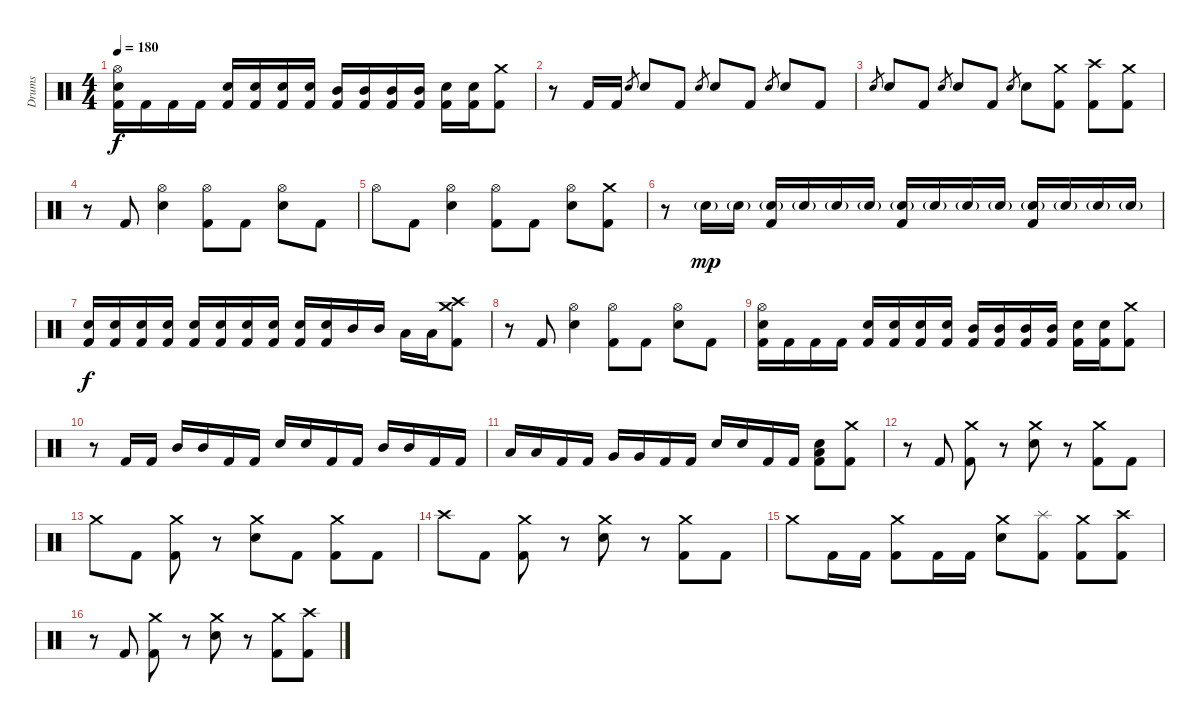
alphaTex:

\track ("Drums" "Drums") {instrument percussion}
\staff {score}
\articulation defaults
\ts (4 4)
\tempo 180
\clef neutral
\ks c
("Hi-Hat (open)" "Electric Snare (hit)" "Kick (hit) 2").16{dy f} "Kick (hit) 2".16 "Kick (hit) 2".16 "Kick (hit) 2".16 ("Electric Snare (hit)" "Kick (hit) 2").16 ("Electric Snare (hit)" "Kick (hit) 2").16 ("Electric Snare (hit)" "Kick (hit) 2").16 ("Electric Snare (hit)" "Kick (hit) 2").16 ("Mid Tom (hit)" "Kick (hit) 2").16 ("Mid Tom (hit)" "Kick (hit) 2").16 ("Mid Tom (hit)" "Kick (hit) 2").16 ("Mid Tom (hit)" "Kick (hit) 2").16 ("Electric Snare (hit)" "Kick (hit) 2").16 ("Electric Snare (hit)" "Kick (hit) 2").16 ("Crash medium (hit)" "Kick (hit) 2").8 |
r.8 "Kick (hit) 2".16 "Kick (hit) 2".16 "Electric Snare (hit)".8{gr} "Electric Snare (hit)".8 "Kick (hit) 2".8 "Electric Snare (hit)".8{gr} "Electric Snare (hit)".8 "Kick (hit) 2".8 "Electric Snare (hit)".8{gr} "Electric Snare (hit)".8 "Kick (hit) 2".8 |
"Electric Snare (hit)".8{gr} "Electric Snare (hit)".8 "Kick (hit) 2".8 "Electric Snare (hit)".8{gr} "Electric Snare (hit)".8 "Kick (hit) 2".8 "Electric Snare (hit)".8{gr} "Electric Snare (hit)".8 ("Crash medium (hit)" "Kick (hit) 2").8 ("Crash high (hit)" "Kick (hit) 2").8 ("Crash medium (hit)" "Kick (hit) 2").8 |
r.8 "Kick (hit) 2".8 ("Hi-Hat (open)" "Electric Snare (hit)").4 ("Hi-Hat (open)" "Kick (hit) 2").8 "Kick (hit) 2".8 ("Hi-Hat (open)" "Electric Snare (hit)").8 "Kick (hit) 2".8 |
"Hi-Hat (open)".8 "Kick (hit) 2".8 ("Hi-Hat (open)" "Electric Snare (hit)").4 ("Hi-Hat (open)" "Kick (hit) 2").8 "Kick (hit) 2".8 ("Hi-Hat (open)" "Electric Snare (hit)").8 ("Crash medium (hit)" "Kick (hit) 2").8 |
r.8 "Electric Snare (hit)"{g}.16{dy mp} "Electric Snare (hit)"{g}.16 ("Electric Snare (hit)"{g} "Kick (hit) 2").16 "Electric Snare (hit)"{g}.16 "Electric Snare (hit)"{g}.16 "Electric Snare (hit)"{g}.16 ("Electric Snare (hit)"{g} "Kick (hit) 2").16 "Electric Snare (hit)"{g}.16 "Electric Snare (hit)"{g}.16 "Electric Snare (hit)"{g}.16 ("Electric Snare (hit)"{g} "Kick (hit) 2").16 "Electric Snare (hit)"{g}.16 "Electric Snare (hit)"{g}.16 "Electric Snare (hit)"{g}.16 |
("Electric Snare (hit)" "Kick (hit) 2").16{dy f} ("Electric Snare (hit)" "Kick (hit) 2").16 ("Electric Snare (hit)" "Kick (hit) 2").16 ("Electric Snare (hit)" "Kick (hit) 2").16 ("Electric Snare (hit)" "Kick (hit) 2").16 ("Electric Snare (hit)" "Kick (hit) 2").16 ("Electric Snare (hit)" "Kick (hit) 2").16 ("Electric Snare (hit)" "Kick (hit) 2").16 ("Electric Snare (hit)" "Kick (hit) 2").16 ("Electric Snare (hit)" "Kick (hit) 2").16 "Mid Tom (hit)".16 "Mid Tom (hit)".16 "Low Tom (hit)".16 "Low Tom (hit)".16 ("Crash medium (hit)" "Crash high (hit)" "Kick (hit) 2").8 |
r.8 "Kick (hit) 2".8 ("Hi-Hat (open)" "Electric Snare (hit)").4 ("Hi-Hat (open)" "Kick (hit) 2").8 "Kick (hit) 2".8 ("Hi-Hat (open)" "Electric Snare (hit)").8 "Kick (hit) 2".8 |
("Hi-Hat (open)" "Electric Snare (hit)" "Kick (hit) 2").16 "Kick (hit) 2".16 "Kick (hit) 2".16 "Kick (hit) 2".16 ("Electric Snare (hit)" "Kick (hit) 2").16 ("Electric Snare (hit)" "Kick (hit) 2").16 ("Electric Snare (hit)" "Kick (hit) 2").16 ("Electric Snare (hit)" "Kick (hit) 2").16 ("Mid Tom (hit)" "Kick (hit) 2").16 ("Mid Tom (hit)" "Kick (hit) 2").16 ("Mid Tom (hit)" "Kick (hit) 2").16 ("Mid Tom (hit)" "Kick (hit) 2").16 ("Electric Snare (hit)" "Kick (hit) 2").16 ("Electric Snare (hit)" "Kick (hit) 2").16 ("Crash medium (hit)" "Kick (hit) 2").8 |
r.8 "Kick (hit) 2".16 "Kick (hit) 2".16 "Mid Tom (hit)".16 "Mid Tom (hit)".16 "Kick (hit) 2".16 "Kick (hit) 2".16 "Electric Snare (hit)".16 "Electric Snare (hit)".16 "Kick (hit) 2".16 "Kick (hit) 2".16 "Mid Tom (hit)".16 "Mid Tom (hit)".16 "Kick (hit) 2".16 "Kick (hit) 2".16 |
"Low Tom (hit)".16 "Low Tom (hit)".16 "Kick (hit) 2".16 "Kick (hit) 2".16 "Very Low Tom (hit)".16 "Very Low Tom (hit)".16 "Kick (hit) 2".16 "Kick (hit) 2".16 "Electric Snare (hit)".16 "Electric Snare (hit)".16 "Kick (hit) 2".16 "Kick (hit) 2".16 ("Low Floor Tom (hit)" "Electric Snare (hit)" "Kick (hit) 2").8 ("Crash medium (hit)" "Kick (hit) 2").8 |
r.8 "Kick (hit) 2".8 ("Crash medium (hit)" "Kick (hit) 2").8 r.8 ("Crash medium (hit)" "Electric Snare (hit)").8 r.8 ("Crash medium (hit)" "Kick (hit) 2").8 "Kick (hit) 2".8 |
"Crash medium (hit)".8 "Kick (hit) 2".8 ("Crash medium (hit)" "Kick (hit) 2").8 r.8 ("Crash medium (hit)" "Electric Snare (hit)").8 "Kick (hit) 2".8 ("Crash medium (hit)" "Kick (hit) 2").8 "Kick (hit) 2".8 |
"Crash high (hit)".8 "Kick (hit) 2".8 ("Crash medium (hit)" "Kick (hit) 2").8 r.8 ("Crash medium (hit)" "Electric Snare (hit)").8 r.8 ("Crash medium (hit)" "Kick (hit) 2").8 "Kick (hit) 2".8 |
"Crash medium (hit)".8 "Kick (hit) 2".16 "Kick (hit) 2".16 ("Crash medium (hit)" "Kick (hit) 2").8 "Kick (hit) 2".16 "Kick (hit) 2".16 ("Crash medium (hit)" "Electric Snare (hit)").8 ("Splash (hit)" "Kick (hit) 2").8 ("Crash medium (hit)" "Kick (hit) 2").8 ("Crash high (hit)" "Kick (hit) 2").8 |
r.8 "Kick (hit) 2".8 ("Crash medium (hit)" "Kick (hit) 2").8 r.8 ("Crash medium (hit)" "Electric Snare (hit)").8 r.8 ("Crash medium (hit)" "Kick (hit) 2").8 ("Crash high (hit)" "Kick (hit) 2").8
